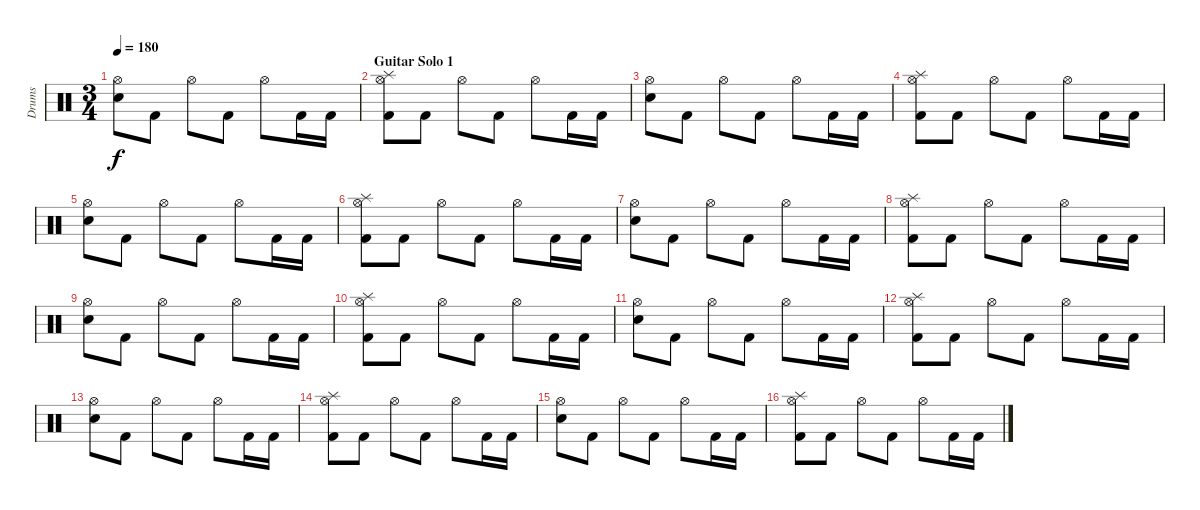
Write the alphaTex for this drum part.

\track ("Drums" "Drums") {instrument percussion}
\staff {score}
\articulation defaults
\ts (3 4)
\tempo 180
\clef neutral
\ks c
("Hi-Hat (open)" "Electric Snare (hit)").8{dy f} "Kick (hit) 2".8 "Hi-Hat (open)".8 "Kick (hit) 2".8 "Hi-Hat (open)".8 "Kick (hit) 2".16 "Kick (hit) 2".16 |
\section ("" "Guitar Solo 1")
("Splash (hit)" "Hi-Hat (open)" "Kick (hit) 2").8 "Kick (hit) 2".8 "Hi-Hat (open)".8 "Kick (hit) 2".8 "Hi-Hat (open)".8 "Kick (hit) 2".16 "Kick (hit) 2".16 |
("Hi-Hat (open)" "Electric Snare (hit)").8 "Kick (hit) 2".8 "Hi-Hat (open)".8 "Kick (hit) 2".8 "Hi-Hat (open)".8 "Kick (hit) 2".16 "Kick (hit) 2".16 |
("Splash (hit)" "Hi-Hat (open)" "Kick (hit) 2").8 "Kick (hit) 2".8 "Hi-Hat (open)".8 "Kick (hit) 2".8 "Hi-Hat (open)".8 "Kick (hit) 2".16 "Kick (hit) 2".16 |
("Hi-Hat (open)" "Electric Snare (hit)").8 "Kick (hit) 2".8 "Hi-Hat (open)".8 "Kick (hit) 2".8 "Hi-Hat (open)".8 "Kick (hit) 2".16 "Kick (hit) 2".16 |
("Splash (hit)" "Hi-Hat (open)" "Kick (hit) 2").8 "Kick (hit) 2".8 "Hi-Hat (open)".8 "Kick (hit) 2".8 "Hi-Hat (open)".8 "Kick (hit) 2".16 "Kick (hit) 2".16 |
("Hi-Hat (open)" "Electric Snare (hit)").8 "Kick (hit) 2".8 "Hi-Hat (open)".8 "Kick (hit) 2".8 "Hi-Hat (open)".8 "Kick (hit) 2".16 "Kick (hit) 2".16 |
("Splash (hit)" "Hi-Hat (open)" "Kick (hit) 2").8 "Kick (hit) 2".8 "Hi-Hat (open)".8 "Kick (hit) 2".8 "Hi-Hat (open)".8 "Kick (hit) 2".16 "Kick (hit) 2".16 |
("Hi-Hat (open)" "Electric Snare (hit)").8 "Kick (hit) 2".8 "Hi-Hat (open)".8 "Kick (hit) 2".8 "Hi-Hat (open)".8 "Kick (hit) 2".16 "Kick (hit) 2".16 |
("Splash (hit)" "Hi-Hat (open)" "Kick (hit) 2").8 "Kick (hit) 2".8 "Hi-Hat (open)".8 "Kick (hit) 2".8 "Hi-Hat (open)".8 "Kick (hit) 2".16 "Kick (hit) 2".16 |
("Hi-Hat (open)" "Electric Snare (hit)").8 "Kick (hit) 2".8 "Hi-Hat (open)".8 "Kick (hit) 2".8 "Hi-Hat (open)".8 "Kick (hit) 2".16 "Kick (hit) 2".16 |
("Splash (hit)" "Hi-Hat (open)" "Kick (hit) 2").8 "Kick (hit) 2".8 "Hi-Hat (open)".8 "Kick (hit) 2".8 "Hi-Hat (open)".8 "Kick (hit) 2".16 "Kick (hit) 2".16 |
("Hi-Hat (open)" "Electric Snare (hit)").8 "Kick (hit) 2".8 "Hi-Hat (open)".8 "Kick (hit) 2".8 "Hi-Hat (open)".8 "Kick (hit) 2".16 "Kick (hit) 2".16 |
("Splash (hit)" "Hi-Hat (open)" "Kick (hit) 2").8 "Kick (hit) 2".8 "Hi-Hat (open)".8 "Kick (hit) 2".8 "Hi-Hat (open)".8 "Kick (hit) 2".16 "Kick (hit) 2".16 |
("Hi-Hat (open)" "Electric Snare (hit)").8 "Kick (hit) 2".8 "Hi-Hat (open)".8 "Kick (hit) 2".8 "Hi-Hat (open)".8 "Kick (hit) 2".16 "Kick (hit) 2".16 |
("Splash (hit)" "Hi-Hat (open)" "Kick (hit) 2").8 "Kick (hit) 2".8 "Hi-Hat (open)".8 "Kick (hit) 2".8 "Hi-Hat (open)".8 "Kick (hit) 2".16 "Kick (hit) 2".16
